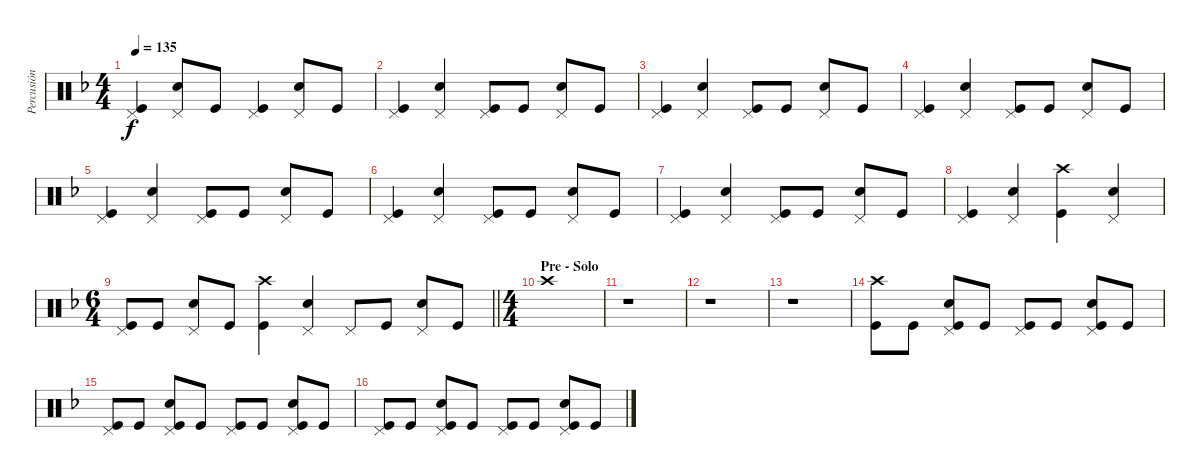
\track ("Percusión" "Percusión") {instrument percussion}
\staff {score}
\articulation defaults
\ts (4 4)
\tempo 135
\clef neutral
\ks dminor
("Pedal Hi-Hat (hit)" "Kick (hit)").4{dy f} ("Pedal Hi-Hat (hit)" "Snare (hit) 2").8 "Kick (hit)".8 ("Pedal Hi-Hat (hit)" "Kick (hit)").4 ("Pedal Hi-Hat (hit)" "Snare (hit) 2").8 "Kick (hit)".8 |
("Pedal Hi-Hat (hit)" "Kick (hit)").4 ("Pedal Hi-Hat (hit)" "Snare (hit) 2").4 ("Pedal Hi-Hat (hit)" "Kick (hit)").8 "Kick (hit)".8 ("Pedal Hi-Hat (hit)" "Snare (hit) 2").8 "Kick (hit)".8 |
("Pedal Hi-Hat (hit)" "Kick (hit)").4 ("Pedal Hi-Hat (hit)" "Snare (hit) 2").4 ("Pedal Hi-Hat (hit)" "Kick (hit)").8 "Kick (hit)".8 ("Pedal Hi-Hat (hit)" "Snare (hit) 2").8 "Kick (hit)".8 |
("Pedal Hi-Hat (hit)" "Kick (hit)").4 ("Pedal Hi-Hat (hit)" "Snare (hit) 2").4 ("Pedal Hi-Hat (hit)" "Kick (hit)").8 "Kick (hit)".8 ("Pedal Hi-Hat (hit)" "Snare (hit) 2").8 "Kick (hit)".8 |
("Pedal Hi-Hat (hit)" "Kick (hit)").4 ("Pedal Hi-Hat (hit)" "Snare (hit) 2").4 ("Pedal Hi-Hat (hit)" "Kick (hit)").8 "Kick (hit)".8 ("Pedal Hi-Hat (hit)" "Snare (hit) 2").8 "Kick (hit)".8 |
("Pedal Hi-Hat (hit)" "Kick (hit)").4 ("Pedal Hi-Hat (hit)" "Snare (hit) 2").4 ("Pedal Hi-Hat (hit)" "Kick (hit)").8 "Kick (hit)".8 ("Pedal Hi-Hat (hit)" "Snare (hit) 2").8 "Kick (hit)".8 |
("Pedal Hi-Hat (hit)" "Kick (hit)").4 ("Pedal Hi-Hat (hit)" "Snare (hit) 2").4 ("Pedal Hi-Hat (hit)" "Kick (hit)").8 "Kick (hit)".8 ("Pedal Hi-Hat (hit)" "Snare (hit) 2").8 "Kick (hit)".8 |
("Pedal Hi-Hat (hit)" "Kick (hit)").4 ("Pedal Hi-Hat (hit)" "Snare (hit) 2").4 ("Crash high (hit)" "Kick (hit)").4 ("Pedal Hi-Hat (hit)" "Snare (hit) 2").4 |
\ts (6 4)
\barLineRight lightlight
("Pedal Hi-Hat (hit)" "Kick (hit)").8 "Kick (hit)".8 ("Pedal Hi-Hat (hit)" "Snare (hit) 2").8 "Kick (hit)".8 ("Crash high (hit)" "Kick (hit)").4 ("Pedal Hi-Hat (hit)" "Snare (hit) 2").4 "Pedal Hi-Hat (hit)".8 "Kick (hit)".8 ("Pedal Hi-Hat (hit)" "Snare (hit) 2").8 "Kick (hit)".8 |
\ts (4 4)
\section ("" "Pre - Solo")
"Crash high (hit)".1 |
r.1 |
r.1 |
r.1 |
("Crash high (hit)" "Kick (hit)").8 "Kick (hit)".8 ("Pedal Hi-Hat (hit)" "Snare (hit) 2" "Kick (hit)").8 "Kick (hit)".8 ("Pedal Hi-Hat (hit)" "Kick (hit)").8 "Kick (hit)".8 ("Pedal Hi-Hat (hit)" "Snare (hit) 2" "Kick (hit)").8 "Kick (hit)".8 |
("Pedal Hi-Hat (hit)" "Kick (hit)").8 "Kick (hit)".8 ("Pedal Hi-Hat (hit)" "Snare (hit) 2" "Kick (hit)").8 "Kick (hit)".8 ("Pedal Hi-Hat (hit)" "Kick (hit)").8 "Kick (hit)".8 ("Pedal Hi-Hat (hit)" "Snare (hit) 2" "Kick (hit)").8 "Kick (hit)".8 |
("Pedal Hi-Hat (hit)" "Kick (hit)").8 "Kick (hit)".8 ("Pedal Hi-Hat (hit)" "Snare (hit) 2" "Kick (hit)").8 "Kick (hit)".8 ("Pedal Hi-Hat (hit)" "Kick (hit)").8 "Kick (hit)".8 ("Pedal Hi-Hat (hit)" "Snare (hit) 2" "Kick (hit)").8 "Kick (hit)".8
